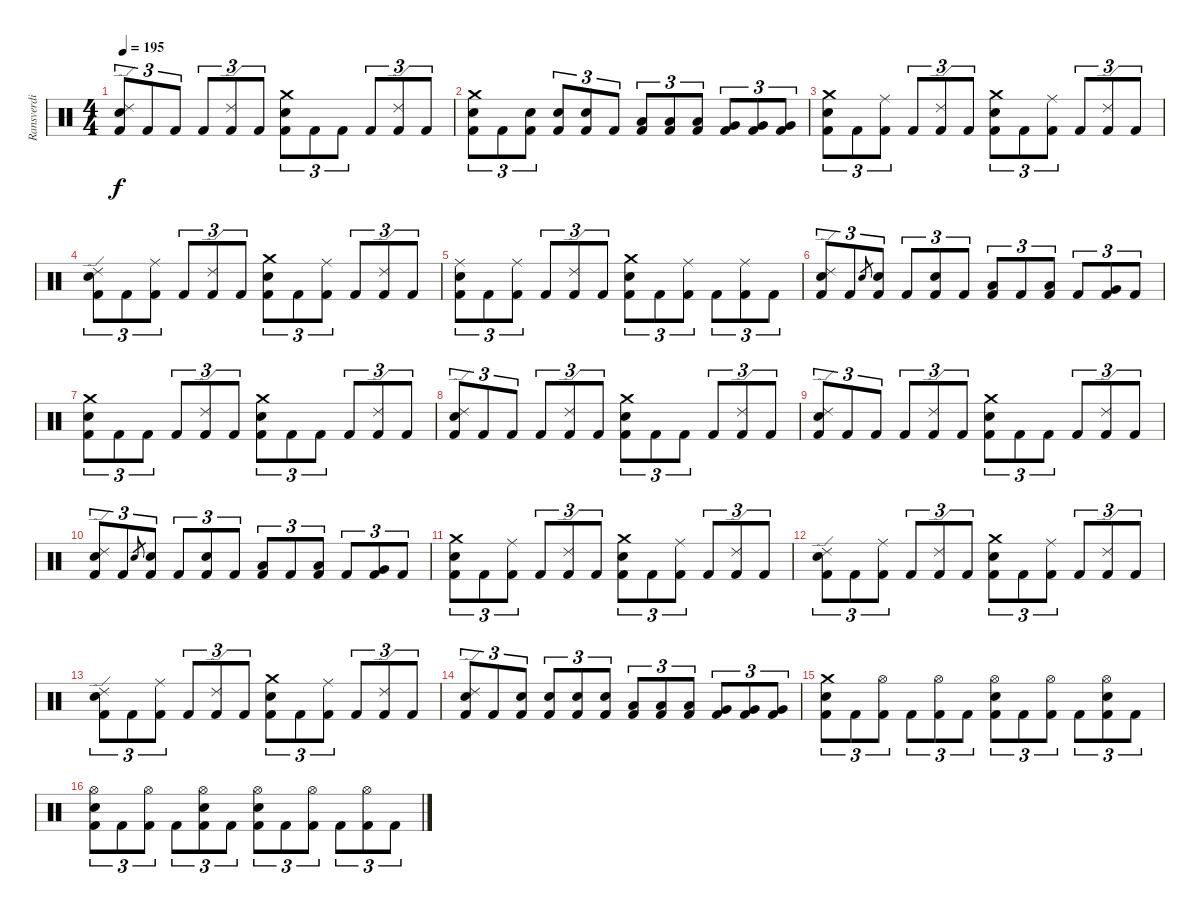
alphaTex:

\track ("Ransverdi" "Ransverdi") {instrument percussion}
\staff {score}
\articulation defaults
\ts (4 4)
\tempo 195
\clef neutral
\ks c
("Ride (edge) 2" "Snare (hit) 2" "Kick (hit) 2").8{tu (3 2) dy f} "Kick (hit) 2".8{tu (3 2)} "Kick (hit) 2".8{tu (3 2)} "Kick (hit) 2".8{tu (3 2)} ("Ride (edge) 2" "Kick (hit) 2").8{tu (3 2)} "Kick (hit) 2".8{tu (3 2)} ("Crash medium (hit)" "Snare (hit) 2" "Kick (hit) 2").8{tu (3 2)} "Kick (hit) 2".8{tu (3 2)} "Kick (hit) 2".8{tu (3 2)} "Kick (hit) 2".8{tu (3 2)} ("Ride (edge) 2" "Kick (hit) 2").8{tu (3 2)} "Kick (hit) 2".8{tu (3 2)} |
("Crash medium (hit)" "Snare (hit) 2" "Kick (hit) 2").8{tu (3 2)} "Kick (hit) 2".8{tu (3 2)} ("Snare (hit) 2" "Kick (hit) 2").8{tu (3 2)} ("Snare (hit) 2" "Kick (hit) 2").8{tu (3 2)} ("Snare (hit) 2" "Kick (hit) 2").8{tu (3 2)} "Kick (hit) 2".8{tu (3 2)} ("Low Tom (hit)" "Kick (hit) 2").8{tu (3 2)} ("Low Tom (hit)" "Kick (hit) 2").8{tu (3 2)} ("Low Tom (hit)" "Kick (hit) 2").8{tu (3 2)} ("Very Low Tom (hit)" "Kick (hit) 2").8{tu (3 2)} ("Very Low Tom (hit)" "Kick (hit) 2").8{tu (3 2)} ("Very Low Tom (hit)" "Kick (hit) 2").8{tu (3 2)} |
("Crash medium (hit)" "Snare (hit) 2" "Kick (hit) 2").8{tu (3 2)} "Kick (hit) 2".8{tu (3 2)} ("Ride (middle)" "Kick (hit) 2").8{tu (3 2)} "Kick (hit) 2".8{tu (3 2)} ("Ride (edge) 2" "Kick (hit) 2").8{tu (3 2)} "Kick (hit) 2".8{tu (3 2)} ("Crash medium (hit)" "Snare (hit) 2" "Kick (hit) 2").8{tu (3 2)} "Kick (hit) 2".8{tu (3 2)} ("Ride (middle)" "Kick (hit) 2").8{tu (3 2)} "Kick (hit) 2".8{tu (3 2)} ("Ride (edge) 2" "Kick (hit) 2").8{tu (3 2)} "Kick (hit) 2".8{tu (3 2)} |
("Ride (edge) 2" "Snare (hit) 2" "Kick (hit) 2").8{tu (3 2)} "Kick (hit) 2".8{tu (3 2)} ("Ride (middle)" "Kick (hit) 2").8{tu (3 2)} "Kick (hit) 2".8{tu (3 2)} ("Ride (edge) 2" "Kick (hit) 2").8{tu (3 2)} "Kick (hit) 2".8{tu (3 2)} ("Crash medium (hit)" "Snare (hit) 2" "Kick (hit) 2").8{tu (3 2)} "Kick (hit) 2".8{tu (3 2)} ("Ride (middle)" "Kick (hit) 2").8{tu (3 2)} "Kick (hit) 2".8{tu (3 2)} ("Ride (edge) 2" "Kick (hit) 2").8{tu (3 2)} "Kick (hit) 2".8{tu (3 2)} |
("Ride (middle)" "Snare (hit) 2" "Kick (hit) 2").8{tu (3 2)} "Kick (hit) 2".8{tu (3 2)} ("Ride (middle)" "Kick (hit) 2").8{tu (3 2)} "Kick (hit) 2".8{tu (3 2)} ("Ride (edge) 2" "Kick (hit) 2").8{tu (3 2)} "Kick (hit) 2".8{tu (3 2)} ("Crash medium (hit)" "Snare (hit) 2" "Kick (hit) 2").8{tu (3 2)} "Kick (hit) 2".8{tu (3 2)} ("Ride (middle)" "Kick (hit) 2").8{tu (3 2)} "Kick (hit) 2".8{tu (3 2)} ("Ride (middle)" "Kick (hit) 2").8{tu (3 2)} "Kick (hit) 2".8{tu (3 2)} |
("Ride (edge) 2" "Snare (hit) 2" "Kick (hit) 2").8{tu (3 2)} "Kick (hit) 2".8{tu (3 2)} "Snare (hit) 2".8{gr} ("Snare (hit) 2" "Kick (hit) 2").8{tu (3 2)} "Kick (hit) 2".8{tu (3 2)} ("Snare (hit) 2" "Kick (hit) 2").8{tu (3 2)} "Kick (hit) 2".8{tu (3 2)} ("Low Tom (hit)" "Kick (hit) 2").8{tu (3 2)} "Kick (hit) 2".8{tu (3 2)} ("Low Tom (hit)" "Kick (hit) 2").8{tu (3 2)} "Kick (hit) 2".8{tu (3 2)} ("Very Low Tom (hit)" "Kick (hit) 2").8{tu (3 2)} "Kick (hit) 2".8{tu (3 2)} |
("Crash medium (hit)" "Snare (hit) 2" "Kick (hit) 2").8{tu (3 2)} "Kick (hit) 2".8{tu (3 2)} "Kick (hit) 2".8{tu (3 2)} "Kick (hit) 2".8{tu (3 2)} ("Ride (edge) 2" "Kick (hit) 2").8{tu (3 2)} "Kick (hit) 2".8{tu (3 2)} ("Crash medium (hit)" "Snare (hit) 2" "Kick (hit) 2").8{tu (3 2)} "Kick (hit) 2".8{tu (3 2)} "Kick (hit) 2".8{tu (3 2)} "Kick (hit) 2".8{tu (3 2)} ("Ride (edge) 2" "Kick (hit) 2").8{tu (3 2)} "Kick (hit) 2".8{tu (3 2)} |
("Ride (edge) 2" "Snare (hit) 2" "Kick (hit) 2").8{tu (3 2)} "Kick (hit) 2".8{tu (3 2)} "Kick (hit) 2".8{tu (3 2)} "Kick (hit) 2".8{tu (3 2)} ("Ride (edge) 2" "Kick (hit) 2").8{tu (3 2)} "Kick (hit) 2".8{tu (3 2)} ("Crash medium (hit)" "Snare (hit) 2" "Kick (hit) 2").8{tu (3 2)} "Kick (hit) 2".8{tu (3 2)} "Kick (hit) 2".8{tu (3 2)} "Kick (hit) 2".8{tu (3 2)} ("Ride (edge) 2" "Kick (hit) 2").8{tu (3 2)} "Kick (hit) 2".8{tu (3 2)} |
("Ride (edge) 2" "Snare (hit) 2" "Kick (hit) 2").8{tu (3 2)} "Kick (hit) 2".8{tu (3 2)} "Kick (hit) 2".8{tu (3 2)} "Kick (hit) 2".8{tu (3 2)} ("Ride (edge) 2" "Kick (hit) 2").8{tu (3 2)} "Kick (hit) 2".8{tu (3 2)} ("Crash medium (hit)" "Snare (hit) 2" "Kick (hit) 2").8{tu (3 2)} "Kick (hit) 2".8{tu (3 2)} "Kick (hit) 2".8{tu (3 2)} "Kick (hit) 2".8{tu (3 2)} ("Ride (edge) 2" "Kick (hit) 2").8{tu (3 2)} "Kick (hit) 2".8{tu (3 2)} |
("Ride (edge) 2" "Snare (hit) 2" "Kick (hit) 2").8{tu (3 2)} "Kick (hit) 2".8{tu (3 2)} "Snare (hit) 2".8{gr} ("Snare (hit) 2" "Kick (hit) 2").8{tu (3 2)} "Kick (hit) 2".8{tu (3 2)} ("Snare (hit) 2" "Kick (hit) 2").8{tu (3 2)} "Kick (hit) 2".8{tu (3 2)} ("Low Tom (hit)" "Kick (hit) 2").8{tu (3 2)} "Kick (hit) 2".8{tu (3 2)} ("Low Tom (hit)" "Kick (hit) 2").8{tu (3 2)} "Kick (hit) 2".8{tu (3 2)} ("Very Low Tom (hit)" "Kick (hit) 2").8{tu (3 2)} "Kick (hit) 2".8{tu (3 2)} |
("Crash medium (hit)" "Snare (hit) 2" "Kick (hit) 2").8{tu (3 2)} "Kick (hit) 2".8{tu (3 2)} ("Ride (middle)" "Kick (hit) 2").8{tu (3 2)} "Kick (hit) 2".8{tu (3 2)} ("Ride (edge) 2" "Kick (hit) 2").8{tu (3 2)} "Kick (hit) 2".8{tu (3 2)} ("Crash medium (hit)" "Snare (hit) 2" "Kick (hit) 2").8{tu (3 2)} "Kick (hit) 2".8{tu (3 2)} ("Ride (middle)" "Kick (hit) 2").8{tu (3 2)} "Kick (hit) 2".8{tu (3 2)} ("Ride (edge) 2" "Kick (hit) 2").8{tu (3 2)} "Kick (hit) 2".8{tu (3 2)} |
("Ride (edge) 2" "Snare (hit) 2" "Kick (hit) 2").8{tu (3 2)} "Kick (hit) 2".8{tu (3 2)} ("Ride (middle)" "Kick (hit) 2").8{tu (3 2)} "Kick (hit) 2".8{tu (3 2)} ("Ride (edge) 2" "Kick (hit) 2").8{tu (3 2)} "Kick (hit) 2".8{tu (3 2)} ("Crash medium (hit)" "Snare (hit) 2" "Kick (hit) 2").8{tu (3 2)} "Kick (hit) 2".8{tu (3 2)} ("Ride (middle)" "Kick (hit) 2").8{tu (3 2)} "Kick (hit) 2".8{tu (3 2)} ("Ride (edge) 2" "Kick (hit) 2").8{tu (3 2)} "Kick (hit) 2".8{tu (3 2)} |
("Ride (edge) 2" "Snare (hit) 2" "Kick (hit) 2").8{tu (3 2)} "Kick (hit) 2".8{tu (3 2)} ("Ride (middle)" "Kick (hit) 2").8{tu (3 2)} "Kick (hit) 2".8{tu (3 2)} ("Ride (edge) 2" "Kick (hit) 2").8{tu (3 2)} "Kick (hit) 2".8{tu (3 2)} ("Crash medium (hit)" "Snare (hit) 2" "Kick (hit) 2").8{tu (3 2)} "Kick (hit) 2".8{tu (3 2)} ("Ride (middle)" "Kick (hit) 2").8{tu (3 2)} "Kick (hit) 2".8{tu (3 2)} ("Ride (edge) 2" "Kick (hit) 2").8{tu (3 2)} "Kick (hit) 2".8{tu (3 2)} |
("Ride (edge) 2" "Snare (hit) 2" "Kick (hit) 2").8{tu (3 2)} "Kick (hit) 2".8{tu (3 2)} ("Snare (hit) 2" "Kick (hit) 2").8{tu (3 2)} ("Snare (hit) 2" "Kick (hit) 2").8{tu (3 2)} ("Snare (hit) 2" "Kick (hit) 2").8{tu (3 2)} ("Snare (hit) 2" "Kick (hit) 2").8{tu (3 2)} ("Low Tom (hit)" "Kick (hit) 2").8{tu (3 2)} ("Low Tom (hit)" "Kick (hit) 2").8{tu (3 2)} ("Low Tom (hit)" "Kick (hit) 2").8{tu (3 2)} ("Very Low Tom (hit)" "Kick (hit) 2").8{tu (3 2)} ("Very Low Tom (hit)" "Kick (hit) 2").8{tu (3 2)} ("Very Low Tom (hit)" "Kick (hit) 2").8{tu (3 2)} |
("Crash medium (hit)" "Snare (hit) 2" "Kick (hit) 2").8{tu (3 2)} "Kick (hit) 2".8{tu (3 2)} ("Hi-Hat (open)" "Kick (hit) 2").8{tu (3 2)} "Kick (hit) 2".8{tu (3 2)} ("Hi-Hat (open)" "Kick (hit) 2").8{tu (3 2)} "Kick (hit) 2".8{tu (3 2)} ("Hi-Hat (open)" "Snare (hit) 2" "Kick (hit) 2").8{tu (3 2)} "Kick (hit) 2".8{tu (3 2)} ("Hi-Hat (open)" "Kick (hit) 2").8{tu (3 2)} "Kick (hit) 2".8{tu (3 2)} ("Hi-Hat (open)" "Snare (hit) 2" "Kick (hit) 2").8{tu (3 2)} "Kick (hit) 2".8{tu (3 2)} |
("Hi-Hat (open)" "Snare (hit) 2" "Kick (hit) 2").8{tu (3 2)} "Kick (hit) 2".8{tu (3 2)} ("Hi-Hat (open)" "Kick (hit) 2").8{tu (3 2)} "Kick (hit) 2".8{tu (3 2)} ("Hi-Hat (open)" "Snare (hit) 2" "Kick (hit) 2").8{tu (3 2)} "Kick (hit) 2".8{tu (3 2)} ("Hi-Hat (open)" "Snare (hit) 2" "Kick (hit) 2").8{tu (3 2)} "Kick (hit) 2".8{tu (3 2)} ("Hi-Hat (open)" "Kick (hit) 2").8{tu (3 2)} "Kick (hit) 2".8{tu (3 2)} ("Hi-Hat (open)" "Kick (hit) 2").8{tu (3 2)} "Kick (hit) 2".8{tu (3 2)}
